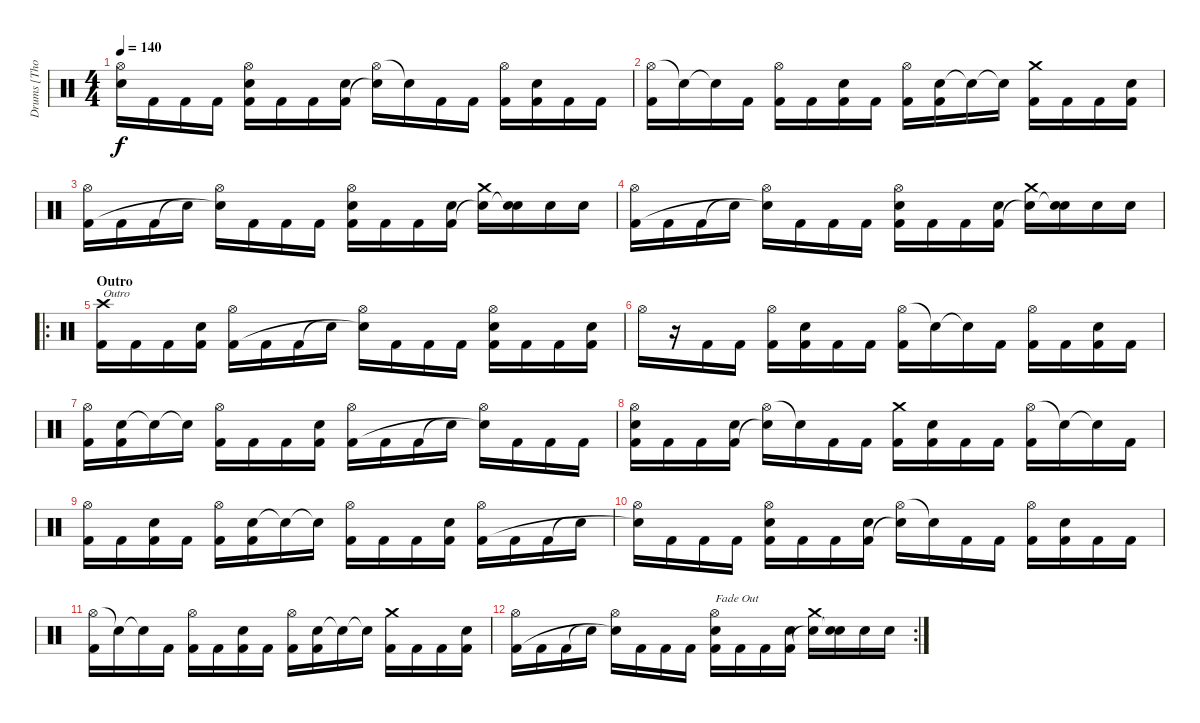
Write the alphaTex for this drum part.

\track ("Drums [Thomas Haake]" "Drums [Tho") {instrument percussion}
\staff {score}
\articulation defaults
\ts (4 4)
\tempo 140
\clef neutral
\ks c
("Hi-Hat (open)" "Snare (hit)"{t}).16{dy f} "Kick (hit) 2".16 "Kick (hit) 2".16 "Kick (hit) 2".16 ("Hi-Hat (open)" "Electric Snare (hit)" "Kick (hit) 2").16 "Kick (hit) 2".16 "Kick (hit) 2".16 ("Electric Snare (hit)" "Kick (hit) 2").16 ("Hi-Hat (open)" "Snare (hit)"{t}).16 "Snare (hit)"{t}.16 "Kick (hit) 2".16 "Kick (hit) 2".16 ("Hi-Hat (open)" "Kick (hit) 2").16 ("Electric Snare (hit)" "Kick (hit) 2").16 "Kick (hit) 2".16 "Kick (hit) 2".16 |
("Hi-Hat (open)" "Kick (hit) 2").16 "Snare (hit)"{t}.16 "Snare (hit)"{t}.16 "Kick (hit) 2".16 ("Hi-Hat (open)" "Kick (hit) 2").16 "Kick (hit) 2".16 ("Electric Snare (hit)" "Kick (hit) 2").16 "Kick (hit) 2".16 ("Hi-Hat (open)" "Kick (hit) 2").16 ("Electric Snare (hit)" "Kick (hit) 2").16 "Snare (hit)"{t}.16 "Snare (hit)"{t}.16 ("Crash medium (hit)" "Kick (hit) 2").16 "Kick (hit) 2".16 "Kick (hit) 2".16 ("Electric Snare (hit)" "Kick (hit) 2").16 |
("Hi-Hat (open)" "Kick (hit) 2").16 "Kick (hit) 2".16 "Kick (hit) 2".16 "Snare (hit)"{t}.16 ("Hi-Hat (open)" "Snare (hit)"{t}).16 "Kick (hit) 2".16 "Kick (hit) 2".16 "Kick (hit) 2".16 ("Hi-Hat (open)" "Electric Snare (hit)" "Kick (hit) 2").16 "Kick (hit) 2".16 "Kick (hit) 2".16 ("Electric Snare (hit)" "Kick (hit) 2").16 ("Crash medium (hit)" "Snare (hit)"{t}).16 ("Electric Snare (hit)" "Snare (hit)"{t}).16 "Electric Snare (hit)".16 "Electric Snare (hit)".16 |
("Hi-Hat (open)" "Kick (hit) 2").16 "Kick (hit) 2".16 "Kick (hit) 2".16 "Snare (hit)"{t}.16 ("Hi-Hat (open)" "Snare (hit)"{t}).16 "Kick (hit) 2".16 "Kick (hit) 2".16 "Kick (hit) 2".16 ("Hi-Hat (open)" "Electric Snare (hit)" "Kick (hit) 2").16 "Kick (hit) 2".16 "Kick (hit) 2".16 ("Electric Snare (hit)" "Kick (hit) 2").16 ("Crash medium (hit)" "Snare (hit)"{t}).16 ("Electric Snare (hit)" "Snare (hit)"{t}).16 "Electric Snare (hit)".16 "Electric Snare (hit)".16 |
\ro
\section ("" "Outro")
("Crash high (hit)" "Kick (hit) 2").16{txt "Outro"} "Kick (hit) 2".16 "Kick (hit) 2".16 ("Electric Snare (hit)" "Kick (hit) 2").16 ("Hi-Hat (open)" "Kick (hit) 2").16 "Kick (hit) 2".16 "Kick (hit) 2".16 "Snare (hit)"{t}.16 ("Hi-Hat (open)" "Snare (hit)"{t}).16 "Kick (hit) 2".16 "Kick (hit) 2".16 "Kick (hit) 2".16 ("Hi-Hat (open)" "Electric Snare (hit)" "Kick (hit) 2").16 "Kick (hit) 2".16 "Kick (hit) 2".16 ("Electric Snare (hit)" "Kick (hit) 2").16 |
"Hi-Hat (open)".16 r.16 "Kick (hit) 2".16 "Kick (hit) 2".16 ("Hi-Hat (open)" "Kick (hit) 2").16 ("Electric Snare (hit)" "Kick (hit) 2").16 "Kick (hit) 2".16 "Kick (hit) 2".16 ("Hi-Hat (open)" "Kick (hit) 2").16 "Snare (hit)"{t}.16 "Snare (hit)"{t}.16 "Kick (hit) 2".16 ("Hi-Hat (open)" "Kick (hit) 2").16 "Kick (hit) 2".16 ("Electric Snare (hit)" "Kick (hit) 2").16 "Kick (hit) 2".16 |
("Hi-Hat (open)" "Kick (hit) 2").16 ("Electric Snare (hit)" "Kick (hit) 2").16 "Snare (hit)"{t}.16 "Snare (hit)"{t}.16 ("Hi-Hat (open)" "Kick (hit) 2").16 "Kick (hit) 2".16 "Kick (hit) 2".16 ("Electric Snare (hit)" "Kick (hit) 2").16 ("Hi-Hat (open)" "Kick (hit) 2").16 "Kick (hit) 2".16 "Kick (hit) 2".16 "Snare (hit)"{t}.16 ("Hi-Hat (open)" "Snare (hit)"{t}).16 "Kick (hit) 2".16 "Kick (hit) 2".16 "Kick (hit) 2".16 |
("Hi-Hat (open)" "Electric Snare (hit)" "Kick (hit) 2").16 "Kick (hit) 2".16 "Kick (hit) 2".16 ("Electric Snare (hit)" "Kick (hit) 2").16 ("Hi-Hat (open)" "Snare (hit)"{t}).16 "Snare (hit)"{t}.16 "Kick (hit) 2".16 "Kick (hit) 2".16 ("Crash medium (hit)" "Kick (hit) 2").16 ("Electric Snare (hit)" "Kick (hit) 2").16 "Kick (hit) 2".16 "Kick (hit) 2".16 ("Hi-Hat (open)" "Kick (hit) 2").16 "Snare (hit)"{t}.16 "Snare (hit)"{t}.16 "Kick (hit) 2".16 |
("Hi-Hat (open)" "Kick (hit) 2").16 "Kick (hit) 2".16 ("Electric Snare (hit)" "Kick (hit) 2").16 "Kick (hit) 2".16 ("Hi-Hat (open)" "Kick (hit) 2").16 ("Electric Snare (hit)" "Kick (hit) 2").16 "Snare (hit)"{t}.16 "Snare (hit)"{t}.16 ("Hi-Hat (open)" "Kick (hit) 2").16 "Kick (hit) 2".16 "Kick (hit) 2".16 ("Electric Snare (hit)" "Kick (hit) 2").16 ("Hi-Hat (open)" "Kick (hit) 2").16 "Kick (hit) 2".16 "Kick (hit) 2".16 "Snare (hit)"{t}.16 |
("Hi-Hat (open)" "Snare (hit)"{t}).16 "Kick (hit) 2".16 "Kick (hit) 2".16 "Kick (hit) 2".16 ("Hi-Hat (open)" "Electric Snare (hit)" "Kick (hit) 2").16 "Kick (hit) 2".16 "Kick (hit) 2".16 ("Electric Snare (hit)" "Kick (hit) 2").16 ("Hi-Hat (open)" "Snare (hit)"{t}).16 "Snare (hit)"{t}.16 "Kick (hit) 2".16 "Kick (hit) 2".16 ("Hi-Hat (open)" "Kick (hit) 2").16 ("Electric Snare (hit)" "Kick (hit) 2").16 "Kick (hit) 2".16 "Kick (hit) 2".16 |
("Hi-Hat (open)" "Kick (hit) 2").16 "Snare (hit)"{t}.16 "Snare (hit)"{t}.16 "Kick (hit) 2".16 ("Hi-Hat (open)" "Kick (hit) 2").16 "Kick (hit) 2".16 ("Electric Snare (hit)" "Kick (hit) 2").16 "Kick (hit) 2".16 ("Hi-Hat (open)" "Kick (hit) 2").16 ("Electric Snare (hit)" "Kick (hit) 2").16 "Snare (hit)"{t}.16 "Snare (hit)"{t}.16 ("Crash medium (hit)" "Kick (hit) 2").16 "Kick (hit) 2".16 "Kick (hit) 2".16 ("Electric Snare (hit)" "Kick (hit) 2").16 |
\rc 2
("Hi-Hat (open)" "Kick (hit) 2").16 "Kick (hit) 2".16 "Kick (hit) 2".16 "Snare (hit)"{t}.16 ("Hi-Hat (open)" "Snare (hit)"{t}).16 "Kick (hit) 2".16 "Kick (hit) 2".16 "Kick (hit) 2".16 ("Hi-Hat (open)" "Electric Snare (hit)" "Kick (hit) 2").16{txt "Fade Out"} "Kick (hit) 2".16 "Kick (hit) 2".16 ("Electric Snare (hit)" "Kick (hit) 2").16 ("Crash medium (hit)" "Snare (hit)"{t}).16 ("Electric Snare (hit)" "Snare (hit)"{t}).16 "Electric Snare (hit)".16 "Electric Snare (hit)".16
